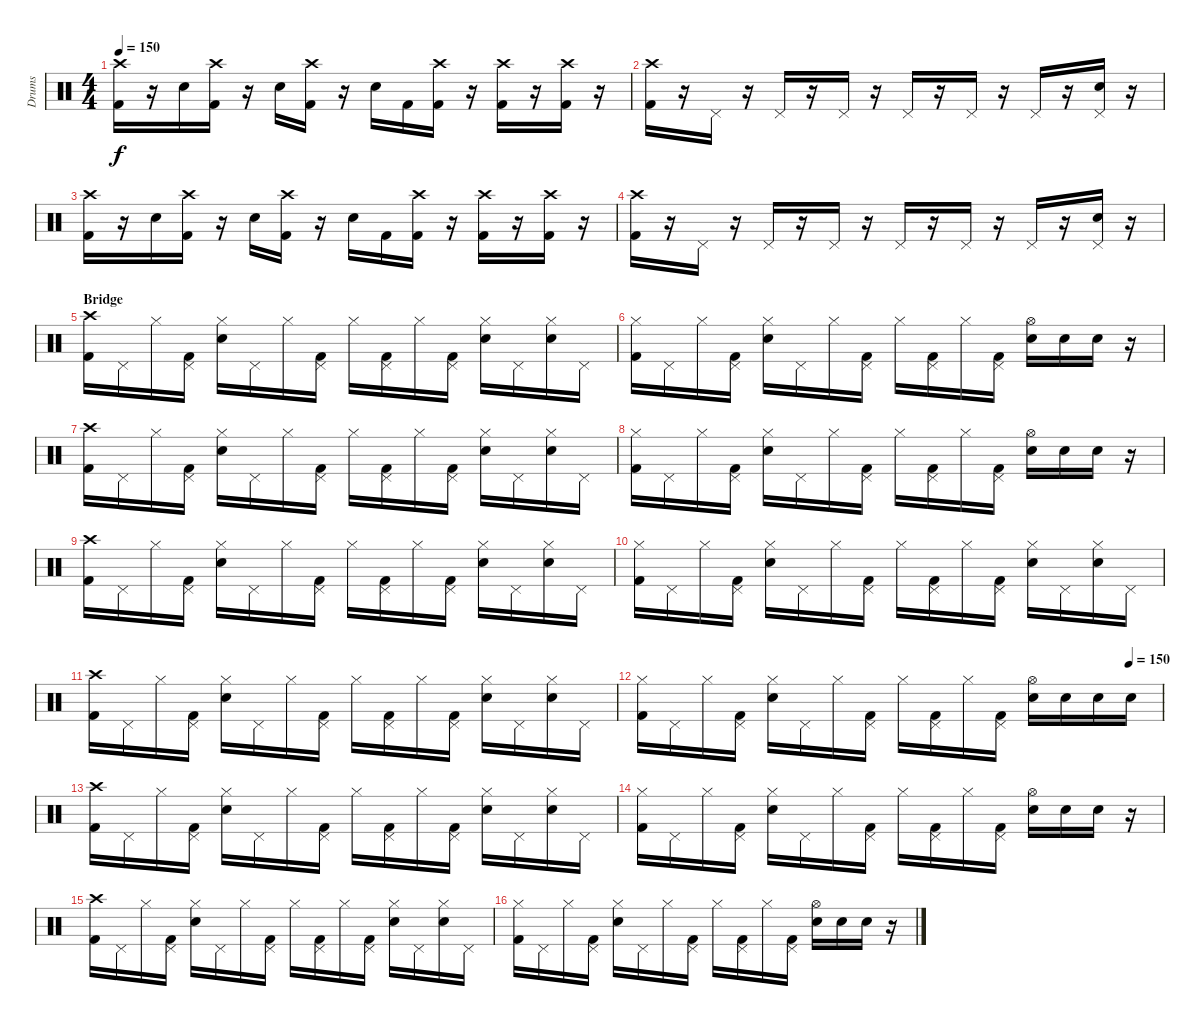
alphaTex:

\track ("Drums" "Drums") {instrument percussion}
\staff {score}
\articulation defaults
\ts (4 4)
\tempo 150
\clef neutral
\ks c
("Crash high (hit)" "Kick (hit) 2").16{dy f} r.16 "Electric Snare (hit)".16 ("Crash high (hit)" "Kick (hit) 2").16 r.16 "Electric Snare (hit)".16 ("Crash high (hit)" "Kick (hit) 2").16 r.16 "Electric Snare (hit)".16 "Kick (hit) 2".16 ("Crash high (hit)" "Kick (hit) 2").16 r.16 ("Crash high (hit)" "Kick (hit) 2").16 r.16 ("Crash high (hit)" "Kick (hit) 2").16 r.16 |
("Crash high (hit)" "Kick (hit) 2").16 r.16 "Pedal Hi-Hat (hit)".16 r.16 "Pedal Hi-Hat (hit)".16 r.16 "Pedal Hi-Hat (hit)".16 r.16 "Pedal Hi-Hat (hit)".16 r.16 "Pedal Hi-Hat (hit)".16 r.16 "Pedal Hi-Hat (hit)".16 r.16 ("Pedal Hi-Hat (hit)" "Electric Snare (hit)").16 r.16 |
("Crash high (hit)" "Kick (hit) 2").16 r.16 "Electric Snare (hit)".16 ("Crash high (hit)" "Kick (hit) 2").16 r.16 "Electric Snare (hit)".16 ("Crash high (hit)" "Kick (hit) 2").16 r.16 "Electric Snare (hit)".16 "Kick (hit) 2".16 ("Crash high (hit)" "Kick (hit) 2").16 r.16 ("Crash high (hit)" "Kick (hit) 2").16 r.16 ("Crash high (hit)" "Kick (hit) 2").16 r.16 |
("Crash high (hit)" "Kick (hit) 2").16 r.16 "Pedal Hi-Hat (hit)".16 r.16 "Pedal Hi-Hat (hit)".16 r.16 "Pedal Hi-Hat (hit)".16 r.16 "Pedal Hi-Hat (hit)".16 r.16 "Pedal Hi-Hat (hit)".16 r.16 "Pedal Hi-Hat (hit)".16 r.16 ("Pedal Hi-Hat (hit)" "Electric Snare (hit)").16 r.16 |
\section ("" "Bridge")
("Crash high (hit)" "Kick (hit) 2").16 "Pedal Hi-Hat (hit)".16 "Hi-Hat (closed)".16 ("Pedal Hi-Hat (hit)" "Kick (hit) 2").16 ("Hi-Hat (closed)" "Electric Snare (hit)").16 "Pedal Hi-Hat (hit)".16 "Hi-Hat (closed)".16 ("Pedal Hi-Hat (hit)" "Kick (hit) 2").16 "Hi-Hat (closed)".16 ("Pedal Hi-Hat (hit)" "Kick (hit) 2").16 "Hi-Hat (closed)".16 ("Pedal Hi-Hat (hit)" "Kick (hit) 2").16 ("Hi-Hat (closed)" "Electric Snare (hit)").16 "Pedal Hi-Hat (hit)".16 ("Hi-Hat (closed)" "Electric Snare (hit)").16 "Pedal Hi-Hat (hit)".16 |
("Hi-Hat (closed)" "Kick (hit) 2").16 "Pedal Hi-Hat (hit)".16 "Hi-Hat (closed)".16 ("Pedal Hi-Hat (hit)" "Kick (hit) 2").16 ("Hi-Hat (closed)" "Electric Snare (hit)").16 "Pedal Hi-Hat (hit)".16 "Hi-Hat (closed)".16 ("Pedal Hi-Hat (hit)" "Kick (hit) 2").16 "Hi-Hat (closed)".16 ("Pedal Hi-Hat (hit)" "Kick (hit) 2").16 "Hi-Hat (closed)".16 ("Pedal Hi-Hat (hit)" "Kick (hit) 2").16 ("Hi-Hat (open)" "Electric Snare (hit)").16 "Electric Snare (hit)".16 "Electric Snare (hit)".16 r.16 |
("Crash high (hit)" "Kick (hit) 2").16 "Pedal Hi-Hat (hit)".16 "Hi-Hat (closed)".16 ("Pedal Hi-Hat (hit)" "Kick (hit) 2").16 ("Hi-Hat (closed)" "Electric Snare (hit)").16 "Pedal Hi-Hat (hit)".16 "Hi-Hat (closed)".16 ("Pedal Hi-Hat (hit)" "Kick (hit) 2").16 "Hi-Hat (closed)".16 ("Pedal Hi-Hat (hit)" "Kick (hit) 2").16 "Hi-Hat (closed)".16 ("Pedal Hi-Hat (hit)" "Kick (hit) 2").16 ("Hi-Hat (closed)" "Electric Snare (hit)").16 "Pedal Hi-Hat (hit)".16 ("Hi-Hat (closed)" "Electric Snare (hit)").16 "Pedal Hi-Hat (hit)".16 |
("Hi-Hat (closed)" "Kick (hit) 2").16 "Pedal Hi-Hat (hit)".16 "Hi-Hat (closed)".16 ("Pedal Hi-Hat (hit)" "Kick (hit) 2").16 ("Hi-Hat (closed)" "Electric Snare (hit)").16 "Pedal Hi-Hat (hit)".16 "Hi-Hat (closed)".16 ("Pedal Hi-Hat (hit)" "Kick (hit) 2").16 "Hi-Hat (closed)".16 ("Pedal Hi-Hat (hit)" "Kick (hit) 2").16 "Hi-Hat (closed)".16 ("Pedal Hi-Hat (hit)" "Kick (hit) 2").16 ("Hi-Hat (open)" "Electric Snare (hit)").16 "Electric Snare (hit)".16 "Electric Snare (hit)".16 r.16 |
("Crash high (hit)" "Kick (hit) 2").16 "Pedal Hi-Hat (hit)".16 "Hi-Hat (closed)".16 ("Pedal Hi-Hat (hit)" "Kick (hit) 2").16 ("Hi-Hat (closed)" "Electric Snare (hit)").16 "Pedal Hi-Hat (hit)".16 "Hi-Hat (closed)".16 ("Pedal Hi-Hat (hit)" "Kick (hit) 2").16 "Hi-Hat (closed)".16 ("Pedal Hi-Hat (hit)" "Kick (hit) 2").16 "Hi-Hat (closed)".16 ("Pedal Hi-Hat (hit)" "Kick (hit) 2").16 ("Hi-Hat (closed)" "Electric Snare (hit)").16 "Pedal Hi-Hat (hit)".16 ("Hi-Hat (closed)" "Electric Snare (hit)").16 "Pedal Hi-Hat (hit)".16 |
("Hi-Hat (closed)" "Kick (hit) 2").16 "Pedal Hi-Hat (hit)".16 "Hi-Hat (closed)".16 ("Pedal Hi-Hat (hit)" "Kick (hit) 2").16 ("Hi-Hat (closed)" "Electric Snare (hit)").16 "Pedal Hi-Hat (hit)".16 "Hi-Hat (closed)".16 ("Pedal Hi-Hat (hit)" "Kick (hit) 2").16 "Hi-Hat (closed)".16 ("Pedal Hi-Hat (hit)" "Kick (hit) 2").16 "Hi-Hat (closed)".16 ("Pedal Hi-Hat (hit)" "Kick (hit) 2").16 ("Hi-Hat (closed)" "Electric Snare (hit)").16 "Pedal Hi-Hat (hit)".16 ("Hi-Hat (closed)" "Electric Snare (hit)").16 "Pedal Hi-Hat (hit)".16 |
("Crash high (hit)" "Kick (hit) 2").16 "Pedal Hi-Hat (hit)".16 "Hi-Hat (closed)".16 ("Pedal Hi-Hat (hit)" "Kick (hit) 2").16 ("Hi-Hat (closed)" "Electric Snare (hit)").16 "Pedal Hi-Hat (hit)".16 "Hi-Hat (closed)".16 ("Pedal Hi-Hat (hit)" "Kick (hit) 2").16 "Hi-Hat (closed)".16 ("Pedal Hi-Hat (hit)" "Kick (hit) 2").16 "Hi-Hat (closed)".16 ("Pedal Hi-Hat (hit)" "Kick (hit) 2").16 ("Hi-Hat (closed)" "Electric Snare (hit)").16 "Pedal Hi-Hat (hit)".16 ("Hi-Hat (closed)" "Electric Snare (hit)").16 "Pedal Hi-Hat (hit)".16 |
\tempo (150 0.9375)
("Hi-Hat (closed)" "Kick (hit) 2").16 "Pedal Hi-Hat (hit)".16 "Hi-Hat (closed)".16 ("Pedal Hi-Hat (hit)" "Kick (hit) 2").16 ("Hi-Hat (closed)" "Electric Snare (hit)").16 "Pedal Hi-Hat (hit)".16 "Hi-Hat (closed)".16 ("Pedal Hi-Hat (hit)" "Kick (hit) 2").16 "Hi-Hat (closed)".16 ("Pedal Hi-Hat (hit)" "Kick (hit) 2").16 "Hi-Hat (closed)".16 ("Pedal Hi-Hat (hit)" "Kick (hit) 2").16 ("Hi-Hat (open)" "Electric Snare (hit)").16 "Electric Snare (hit)".16 "Electric Snare (hit)".16 "Electric Snare (hit)".16 |
("Crash high (hit)" "Kick (hit) 2").16 "Pedal Hi-Hat (hit)".16 "Hi-Hat (closed)".16 ("Pedal Hi-Hat (hit)" "Kick (hit) 2").16 ("Hi-Hat (closed)" "Electric Snare (hit)").16 "Pedal Hi-Hat (hit)".16 "Hi-Hat (closed)".16 ("Pedal Hi-Hat (hit)" "Kick (hit) 2").16 "Hi-Hat (closed)".16 ("Pedal Hi-Hat (hit)" "Kick (hit) 2").16 "Hi-Hat (closed)".16 ("Pedal Hi-Hat (hit)" "Kick (hit) 2").16 ("Hi-Hat (closed)" "Electric Snare (hit)").16 "Pedal Hi-Hat (hit)".16 ("Hi-Hat (closed)" "Electric Snare (hit)").16 "Pedal Hi-Hat (hit)".16 |
("Hi-Hat (closed)" "Kick (hit) 2").16 "Pedal Hi-Hat (hit)".16 "Hi-Hat (closed)".16 ("Pedal Hi-Hat (hit)" "Kick (hit) 2").16 ("Hi-Hat (closed)" "Electric Snare (hit)").16 "Pedal Hi-Hat (hit)".16 "Hi-Hat (closed)".16 ("Pedal Hi-Hat (hit)" "Kick (hit) 2").16 "Hi-Hat (closed)".16 ("Pedal Hi-Hat (hit)" "Kick (hit) 2").16 "Hi-Hat (closed)".16 ("Pedal Hi-Hat (hit)" "Kick (hit) 2").16 ("Hi-Hat (open)" "Electric Snare (hit)").16 "Electric Snare (hit)".16 "Electric Snare (hit)".16 r.16 |
("Crash high (hit)" "Kick (hit) 2").16 "Pedal Hi-Hat (hit)".16 "Hi-Hat (closed)".16 ("Pedal Hi-Hat (hit)" "Kick (hit) 2").16 ("Hi-Hat (closed)" "Electric Snare (hit)").16 "Pedal Hi-Hat (hit)".16 "Hi-Hat (closed)".16 ("Pedal Hi-Hat (hit)" "Kick (hit) 2").16 "Hi-Hat (closed)".16 ("Pedal Hi-Hat (hit)" "Kick (hit) 2").16 "Hi-Hat (closed)".16 ("Pedal Hi-Hat (hit)" "Kick (hit) 2").16 ("Hi-Hat (closed)" "Electric Snare (hit)").16 "Pedal Hi-Hat (hit)".16 ("Hi-Hat (closed)" "Electric Snare (hit)").16 "Pedal Hi-Hat (hit)".16 |
("Hi-Hat (closed)" "Kick (hit) 2").16 "Pedal Hi-Hat (hit)".16 "Hi-Hat (closed)".16 ("Pedal Hi-Hat (hit)" "Kick (hit) 2").16 ("Hi-Hat (closed)" "Electric Snare (hit)").16 "Pedal Hi-Hat (hit)".16 "Hi-Hat (closed)".16 ("Pedal Hi-Hat (hit)" "Kick (hit) 2").16 "Hi-Hat (closed)".16 ("Pedal Hi-Hat (hit)" "Kick (hit) 2").16 "Hi-Hat (closed)".16 ("Pedal Hi-Hat (hit)" "Kick (hit) 2").16 ("Hi-Hat (open)" "Electric Snare (hit)").16 "Electric Snare (hit)".16 "Electric Snare (hit)".16 r.16
